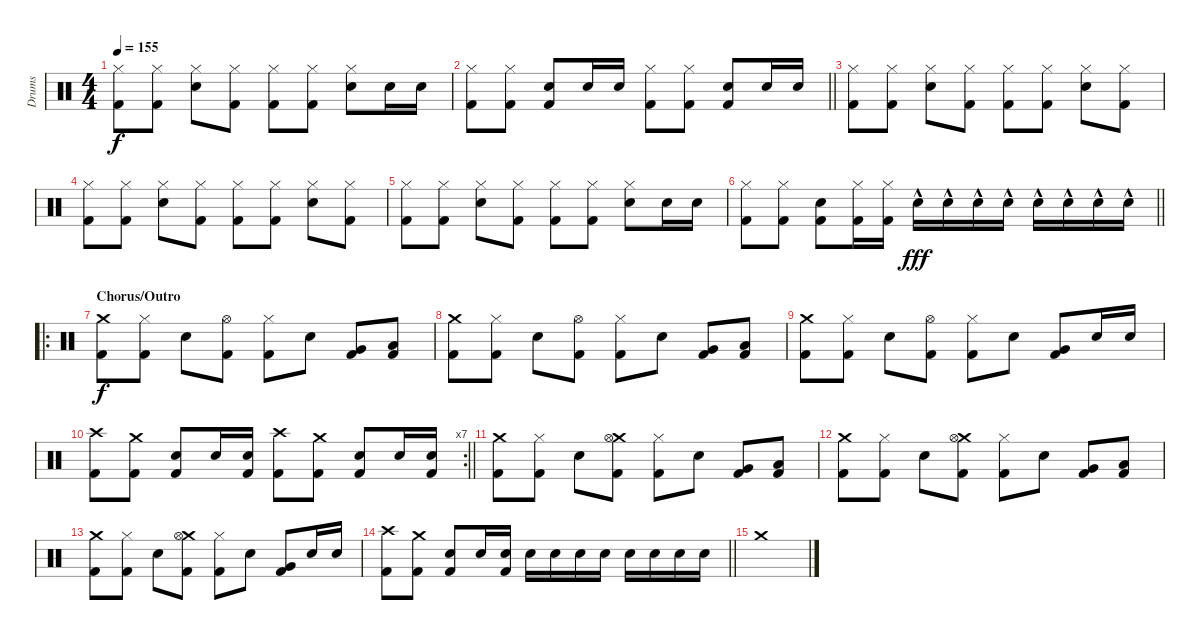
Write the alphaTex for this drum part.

\track ("Drums" "Drums") {instrument percussion}
\staff {score}
\articulation defaults
\ts (4 4)
\tempo 155
\clef neutral
\ks c
("Hi-Hat (closed)" "Kick (hit) 2").8{dy f} ("Hi-Hat (closed)" "Kick (hit) 2").8 ("Hi-Hat (closed)" "Snare (hit) 2").8 ("Hi-Hat (closed)" "Kick (hit) 2").8 ("Hi-Hat (closed)" "Kick (hit) 2").8 ("Hi-Hat (closed)" "Kick (hit) 2").8 ("Hi-Hat (closed)" "Snare (hit) 2").8 "Snare (hit) 2".16 "Snare (hit) 2".16 |
\barLineRight lightlight
("Hi-Hat (closed)" "Kick (hit) 2").8 ("Hi-Hat (closed)" "Kick (hit) 2").8 ("Snare (hit) 2" "Kick (hit) 2").8 "Snare (hit) 2".16 "Snare (hit) 2".16 ("Hi-Hat (closed)" "Kick (hit) 2").8 ("Hi-Hat (closed)" "Kick (hit) 2").8 ("Snare (hit) 2" "Kick (hit) 2").8 "Snare (hit) 2".16 "Snare (hit) 2".16 |
("Hi-Hat (closed)" "Kick (hit) 2").8 ("Hi-Hat (closed)" "Kick (hit) 2").8 ("Hi-Hat (closed)" "Snare (hit) 2").8 ("Hi-Hat (closed)" "Kick (hit) 2").8 ("Hi-Hat (closed)" "Kick (hit) 2").8 ("Hi-Hat (closed)" "Kick (hit) 2").8 ("Hi-Hat (closed)" "Snare (hit) 2").8 ("Hi-Hat (closed)" "Kick (hit) 2").8 |
("Hi-Hat (closed)" "Kick (hit) 2").8 ("Hi-Hat (closed)" "Kick (hit) 2").8 ("Hi-Hat (closed)" "Snare (hit) 2").8 ("Hi-Hat (closed)" "Kick (hit) 2").8 ("Hi-Hat (closed)" "Kick (hit) 2").8 ("Hi-Hat (closed)" "Kick (hit) 2").8 ("Hi-Hat (closed)" "Snare (hit) 2").8 ("Hi-Hat (closed)" "Kick (hit) 2").8 |
("Hi-Hat (closed)" "Kick (hit) 2").8 ("Hi-Hat (closed)" "Kick (hit) 2").8 ("Hi-Hat (closed)" "Snare (hit) 2").8 ("Hi-Hat (closed)" "Kick (hit) 2").8 ("Hi-Hat (closed)" "Kick (hit) 2").8 ("Hi-Hat (closed)" "Kick (hit) 2").8 ("Hi-Hat (closed)" "Snare (hit) 2").8 "Snare (hit) 2".16 "Snare (hit) 2".16 |
\barLineRight lightlight
("Hi-Hat (closed)" "Kick (hit) 2").8 ("Hi-Hat (closed)" "Kick (hit) 2").8 ("Snare (hit) 2" "Kick (hit) 2").8 ("Hi-Hat (closed)" "Kick (hit) 2").16 ("Hi-Hat (closed)" "Kick (hit) 2").16 "Snare (hit) 2"{hac}.16{dy fff} "Snare (hit) 2"{hac}.16 "Snare (hit) 2"{hac}.16 "Snare (hit) 2"{hac}.16 "Snare (hit) 2"{hac}.16 "Snare (hit) 2"{hac}.16 "Snare (hit) 2"{hac}.16 "Snare (hit) 2"{hac}.16 |
\ro
\section ("" "Chorus/Outro")
("Crash medium (hit)" "Kick (hit) 2").8{dy f} ("Hi-Hat (closed)" "Kick (hit) 2").8 "Snare (hit) 2".8 ("Hi-Hat (open)" "Kick (hit) 2").8 ("Hi-Hat (closed)" "Kick (hit) 2").8 "Snare (hit) 2".8 ("Very Low Tom (hit)" "Kick (hit) 2").8 ("Low Floor Tom (hit)" "Kick (hit) 2").8 |
("Crash medium (hit)" "Kick (hit) 2").8 ("Hi-Hat (closed)" "Kick (hit) 2").8 "Snare (hit) 2".8 ("Hi-Hat (open)" "Kick (hit) 2").8 ("Hi-Hat (closed)" "Kick (hit) 2").8 "Snare (hit) 2".8 ("Very Low Tom (hit)" "Kick (hit) 2").8 ("Low Floor Tom (hit)" "Kick (hit) 2").8 |
("Crash medium (hit)" "Kick (hit) 2").8 ("Hi-Hat (closed)" "Kick (hit) 2").8 "Snare (hit) 2".8 ("Hi-Hat (open)" "Kick (hit) 2").8 ("Hi-Hat (closed)" "Kick (hit) 2").8 "Snare (hit) 2".8 ("Very Low Tom (hit)" "Kick (hit) 2").8 "Snare (hit) 2".16 "Snare (hit) 2".16 |
\rc 7
\barLineRight lightlight
("Crash high (hit)" "Kick (hit) 2").8 ("Crash medium (hit)" "Kick (hit) 2").8 ("Snare (hit) 2" "Kick (hit) 2").8 "Snare (hit) 2".16 ("Snare (hit) 2" "Kick (hit) 2").16 ("Crash high (hit)" "Kick (hit) 2").8 ("Crash medium (hit)" "Kick (hit) 2").8 ("Snare (hit) 2" "Kick (hit) 2").8 "Snare (hit) 2".16 ("Snare (hit) 2" "Kick (hit) 2").16 |
("Crash medium (hit)" "Kick (hit) 2").8 ("Hi-Hat (closed)" "Kick (hit) 2").8 "Snare (hit) 2".8 ("Crash medium (hit)" "Hi-Hat (open)" "Kick (hit) 2").8 ("Hi-Hat (closed)" "Kick (hit) 2").8 "Snare (hit) 2".8 ("Very Low Tom (hit)" "Kick (hit) 2").8 ("Low Floor Tom (hit)" "Kick (hit) 2").8 |
("Crash medium (hit)" "Kick (hit) 2").8 ("Hi-Hat (closed)" "Kick (hit) 2").8 "Snare (hit) 2".8 ("Crash medium (hit)" "Hi-Hat (open)" "Kick (hit) 2").8 ("Hi-Hat (closed)" "Kick (hit) 2").8 "Snare (hit) 2".8 ("Very Low Tom (hit)" "Kick (hit) 2").8 ("Low Floor Tom (hit)" "Kick (hit) 2").8 |
("Crash medium (hit)" "Kick (hit) 2").8 ("Hi-Hat (closed)" "Kick (hit) 2").8 "Snare (hit) 2".8 ("Crash medium (hit)" "Hi-Hat (open)" "Kick (hit) 2").8 ("Hi-Hat (closed)" "Kick (hit) 2").8 "Snare (hit) 2".8 ("Very Low Tom (hit)" "Kick (hit) 2").8 "Snare (hit) 2".16 "Snare (hit) 2".16 |
\barLineRight lightlight
("Crash high (hit)" "Kick (hit) 2").8 ("Crash medium (hit)" "Kick (hit) 2").8 ("Snare (hit) 2" "Kick (hit) 2").8 "Snare (hit) 2".16 ("Snare (hit) 2" "Kick (hit) 2").16 "Snare (hit) 2".16 "Snare (hit) 2".16 "Snare (hit) 2".16 "Snare (hit) 2".16 "Snare (hit) 2".16 "Snare (hit) 2".16 "Snare (hit) 2".16 "Snare (hit) 2".16 |
"Crash medium (hit)".1
